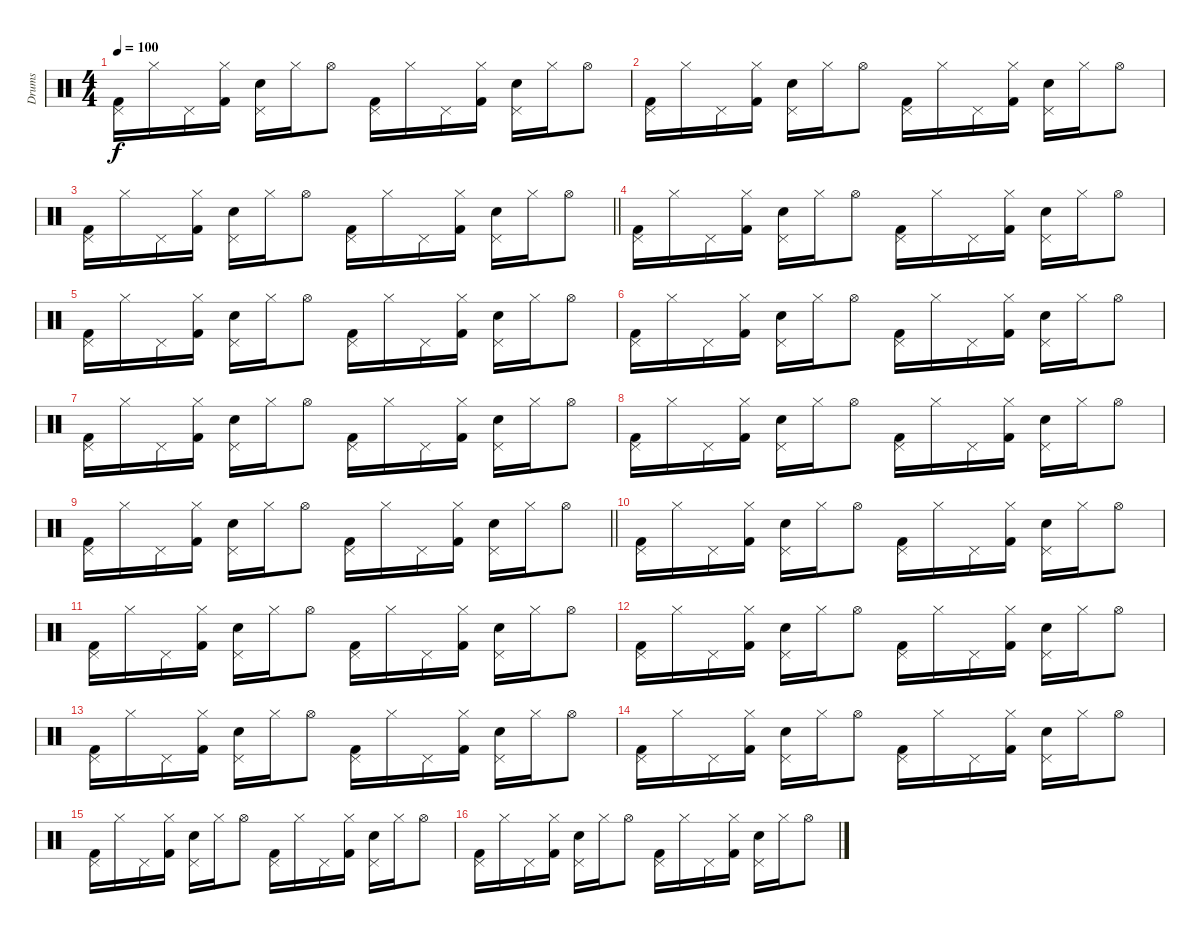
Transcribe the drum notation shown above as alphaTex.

\track ("Drums" "Drums") {instrument percussion}
\staff {score}
\articulation defaults
\ts (4 4)
\tempo 100
\clef neutral
\ks c
("Pedal Hi-Hat (hit)" "Kick (hit) 2").16{dy f} "Hi-Hat (closed)".16 "Pedal Hi-Hat (hit)".16 ("Hi-Hat (closed)" "Kick (hit) 2").16 ("Pedal Hi-Hat (hit)" "Electric Snare (hit)").16 "Hi-Hat (closed)".16 "Hi-Hat (open)".8 ("Pedal Hi-Hat (hit)" "Kick (hit) 2").16 "Hi-Hat (closed)".16 "Pedal Hi-Hat (hit)".16 ("Hi-Hat (closed)" "Kick (hit) 2").16 ("Pedal Hi-Hat (hit)" "Electric Snare (hit)").16 "Hi-Hat (closed)".16 "Hi-Hat (open)".8 |
("Pedal Hi-Hat (hit)" "Kick (hit) 2").16 "Hi-Hat (closed)".16 "Pedal Hi-Hat (hit)".16 ("Hi-Hat (closed)" "Kick (hit) 2").16 ("Pedal Hi-Hat (hit)" "Electric Snare (hit)").16 "Hi-Hat (closed)".16 "Hi-Hat (open)".8 ("Pedal Hi-Hat (hit)" "Kick (hit) 2").16 "Hi-Hat (closed)".16 "Pedal Hi-Hat (hit)".16 ("Hi-Hat (closed)" "Kick (hit) 2").16 ("Pedal Hi-Hat (hit)" "Electric Snare (hit)").16 "Hi-Hat (closed)".16 "Hi-Hat (open)".8 |
\barLineRight lightlight
("Pedal Hi-Hat (hit)" "Kick (hit) 2").16 "Hi-Hat (closed)".16 "Pedal Hi-Hat (hit)".16 ("Hi-Hat (closed)" "Kick (hit) 2").16 ("Pedal Hi-Hat (hit)" "Electric Snare (hit)").16 "Hi-Hat (closed)".16 "Hi-Hat (open)".8 ("Pedal Hi-Hat (hit)" "Kick (hit) 2").16 "Hi-Hat (closed)".16 "Pedal Hi-Hat (hit)".16 ("Hi-Hat (closed)" "Kick (hit) 2").16 ("Pedal Hi-Hat (hit)" "Electric Snare (hit)").16 "Hi-Hat (closed)".16 "Hi-Hat (open)".8 |
("Pedal Hi-Hat (hit)" "Kick (hit) 2").16 "Hi-Hat (closed)".16 "Pedal Hi-Hat (hit)".16 ("Hi-Hat (closed)" "Kick (hit) 2").16 ("Pedal Hi-Hat (hit)" "Electric Snare (hit)").16 "Hi-Hat (closed)".16 "Hi-Hat (open)".8 ("Pedal Hi-Hat (hit)" "Kick (hit) 2").16 "Hi-Hat (closed)".16 "Pedal Hi-Hat (hit)".16 ("Hi-Hat (closed)" "Kick (hit) 2").16 ("Pedal Hi-Hat (hit)" "Electric Snare (hit)").16 "Hi-Hat (closed)".16 "Hi-Hat (open)".8 |
("Pedal Hi-Hat (hit)" "Kick (hit) 2").16 "Hi-Hat (closed)".16 "Pedal Hi-Hat (hit)".16 ("Hi-Hat (closed)" "Kick (hit) 2").16 ("Pedal Hi-Hat (hit)" "Electric Snare (hit)").16 "Hi-Hat (closed)".16 "Hi-Hat (open)".8 ("Pedal Hi-Hat (hit)" "Kick (hit) 2").16 "Hi-Hat (closed)".16 "Pedal Hi-Hat (hit)".16 ("Hi-Hat (closed)" "Kick (hit) 2").16 ("Pedal Hi-Hat (hit)" "Electric Snare (hit)").16 "Hi-Hat (closed)".16 "Hi-Hat (open)".8 |
("Pedal Hi-Hat (hit)" "Kick (hit) 2").16 "Hi-Hat (closed)".16 "Pedal Hi-Hat (hit)".16 ("Hi-Hat (closed)" "Kick (hit) 2").16 ("Pedal Hi-Hat (hit)" "Electric Snare (hit)").16 "Hi-Hat (closed)".16 "Hi-Hat (open)".8 ("Pedal Hi-Hat (hit)" "Kick (hit) 2").16 "Hi-Hat (closed)".16 "Pedal Hi-Hat (hit)".16 ("Hi-Hat (closed)" "Kick (hit) 2").16 ("Pedal Hi-Hat (hit)" "Electric Snare (hit)").16 "Hi-Hat (closed)".16 "Hi-Hat (open)".8 |
("Pedal Hi-Hat (hit)" "Kick (hit) 2").16 "Hi-Hat (closed)".16 "Pedal Hi-Hat (hit)".16 ("Hi-Hat (closed)" "Kick (hit) 2").16 ("Pedal Hi-Hat (hit)" "Electric Snare (hit)").16 "Hi-Hat (closed)".16 "Hi-Hat (open)".8 ("Pedal Hi-Hat (hit)" "Kick (hit) 2").16 "Hi-Hat (closed)".16 "Pedal Hi-Hat (hit)".16 ("Hi-Hat (closed)" "Kick (hit) 2").16 ("Pedal Hi-Hat (hit)" "Electric Snare (hit)").16 "Hi-Hat (closed)".16 "Hi-Hat (open)".8 |
("Pedal Hi-Hat (hit)" "Kick (hit) 2").16 "Hi-Hat (closed)".16 "Pedal Hi-Hat (hit)".16 ("Hi-Hat (closed)" "Kick (hit) 2").16 ("Pedal Hi-Hat (hit)" "Electric Snare (hit)").16 "Hi-Hat (closed)".16 "Hi-Hat (open)".8 ("Pedal Hi-Hat (hit)" "Kick (hit) 2").16 "Hi-Hat (closed)".16 "Pedal Hi-Hat (hit)".16 ("Hi-Hat (closed)" "Kick (hit) 2").16 ("Pedal Hi-Hat (hit)" "Electric Snare (hit)").16 "Hi-Hat (closed)".16 "Hi-Hat (open)".8 |
\barLineRight lightlight
("Pedal Hi-Hat (hit)" "Kick (hit) 2").16 "Hi-Hat (closed)".16 "Pedal Hi-Hat (hit)".16 ("Hi-Hat (closed)" "Kick (hit) 2").16 ("Pedal Hi-Hat (hit)" "Electric Snare (hit)").16 "Hi-Hat (closed)".16 "Hi-Hat (open)".8 ("Pedal Hi-Hat (hit)" "Kick (hit) 2").16 "Hi-Hat (closed)".16 "Pedal Hi-Hat (hit)".16 ("Hi-Hat (closed)" "Kick (hit) 2").16 ("Pedal Hi-Hat (hit)" "Electric Snare (hit)").16 "Hi-Hat (closed)".16 "Hi-Hat (open)".8 |
("Pedal Hi-Hat (hit)" "Kick (hit) 2").16 "Hi-Hat (closed)".16 "Pedal Hi-Hat (hit)".16 ("Hi-Hat (closed)" "Kick (hit) 2").16 ("Pedal Hi-Hat (hit)" "Electric Snare (hit)").16 "Hi-Hat (closed)".16 "Hi-Hat (open)".8 ("Pedal Hi-Hat (hit)" "Kick (hit) 2").16 "Hi-Hat (closed)".16 "Pedal Hi-Hat (hit)".16 ("Hi-Hat (closed)" "Kick (hit) 2").16 ("Pedal Hi-Hat (hit)" "Electric Snare (hit)").16 "Hi-Hat (closed)".16 "Hi-Hat (open)".8 |
("Pedal Hi-Hat (hit)" "Kick (hit) 2").16 "Hi-Hat (closed)".16 "Pedal Hi-Hat (hit)".16 ("Hi-Hat (closed)" "Kick (hit) 2").16 ("Pedal Hi-Hat (hit)" "Electric Snare (hit)").16 "Hi-Hat (closed)".16 "Hi-Hat (open)".8 ("Pedal Hi-Hat (hit)" "Kick (hit) 2").16 "Hi-Hat (closed)".16 "Pedal Hi-Hat (hit)".16 ("Hi-Hat (closed)" "Kick (hit) 2").16 ("Pedal Hi-Hat (hit)" "Electric Snare (hit)").16 "Hi-Hat (closed)".16 "Hi-Hat (open)".8 |
("Pedal Hi-Hat (hit)" "Kick (hit) 2").16 "Hi-Hat (closed)".16 "Pedal Hi-Hat (hit)".16 ("Hi-Hat (closed)" "Kick (hit) 2").16 ("Pedal Hi-Hat (hit)" "Electric Snare (hit)").16 "Hi-Hat (closed)".16 "Hi-Hat (open)".8 ("Pedal Hi-Hat (hit)" "Kick (hit) 2").16 "Hi-Hat (closed)".16 "Pedal Hi-Hat (hit)".16 ("Hi-Hat (closed)" "Kick (hit) 2").16 ("Pedal Hi-Hat (hit)" "Electric Snare (hit)").16 "Hi-Hat (closed)".16 "Hi-Hat (open)".8 |
("Pedal Hi-Hat (hit)" "Kick (hit) 2").16 "Hi-Hat (closed)".16 "Pedal Hi-Hat (hit)".16 ("Hi-Hat (closed)" "Kick (hit) 2").16 ("Pedal Hi-Hat (hit)" "Electric Snare (hit)").16 "Hi-Hat (closed)".16 "Hi-Hat (open)".8 ("Pedal Hi-Hat (hit)" "Kick (hit) 2").16 "Hi-Hat (closed)".16 "Pedal Hi-Hat (hit)".16 ("Hi-Hat (closed)" "Kick (hit) 2").16 ("Pedal Hi-Hat (hit)" "Electric Snare (hit)").16 "Hi-Hat (closed)".16 "Hi-Hat (open)".8 |
("Pedal Hi-Hat (hit)" "Kick (hit) 2").16 "Hi-Hat (closed)".16 "Pedal Hi-Hat (hit)".16 ("Hi-Hat (closed)" "Kick (hit) 2").16 ("Pedal Hi-Hat (hit)" "Electric Snare (hit)").16 "Hi-Hat (closed)".16 "Hi-Hat (open)".8 ("Pedal Hi-Hat (hit)" "Kick (hit) 2").16 "Hi-Hat (closed)".16 "Pedal Hi-Hat (hit)".16 ("Hi-Hat (closed)" "Kick (hit) 2").16 ("Pedal Hi-Hat (hit)" "Electric Snare (hit)").16 "Hi-Hat (closed)".16 "Hi-Hat (open)".8 |
("Pedal Hi-Hat (hit)" "Kick (hit) 2").16 "Hi-Hat (closed)".16 "Pedal Hi-Hat (hit)".16 ("Hi-Hat (closed)" "Kick (hit) 2").16 ("Pedal Hi-Hat (hit)" "Electric Snare (hit)").16 "Hi-Hat (closed)".16 "Hi-Hat (open)".8 ("Pedal Hi-Hat (hit)" "Kick (hit) 2").16 "Hi-Hat (closed)".16 "Pedal Hi-Hat (hit)".16 ("Hi-Hat (closed)" "Kick (hit) 2").16 ("Pedal Hi-Hat (hit)" "Electric Snare (hit)").16 "Hi-Hat (closed)".16 "Hi-Hat (open)".8 |
("Pedal Hi-Hat (hit)" "Kick (hit) 2").16 "Hi-Hat (closed)".16 "Pedal Hi-Hat (hit)".16 ("Hi-Hat (closed)" "Kick (hit) 2").16 ("Pedal Hi-Hat (hit)" "Electric Snare (hit)").16 "Hi-Hat (closed)".16 "Hi-Hat (open)".8 ("Pedal Hi-Hat (hit)" "Kick (hit) 2").16 "Hi-Hat (closed)".16 "Pedal Hi-Hat (hit)".16 ("Hi-Hat (closed)" "Kick (hit) 2").16 ("Pedal Hi-Hat (hit)" "Electric Snare (hit)").16 "Hi-Hat (closed)".16 "Hi-Hat (open)".8
